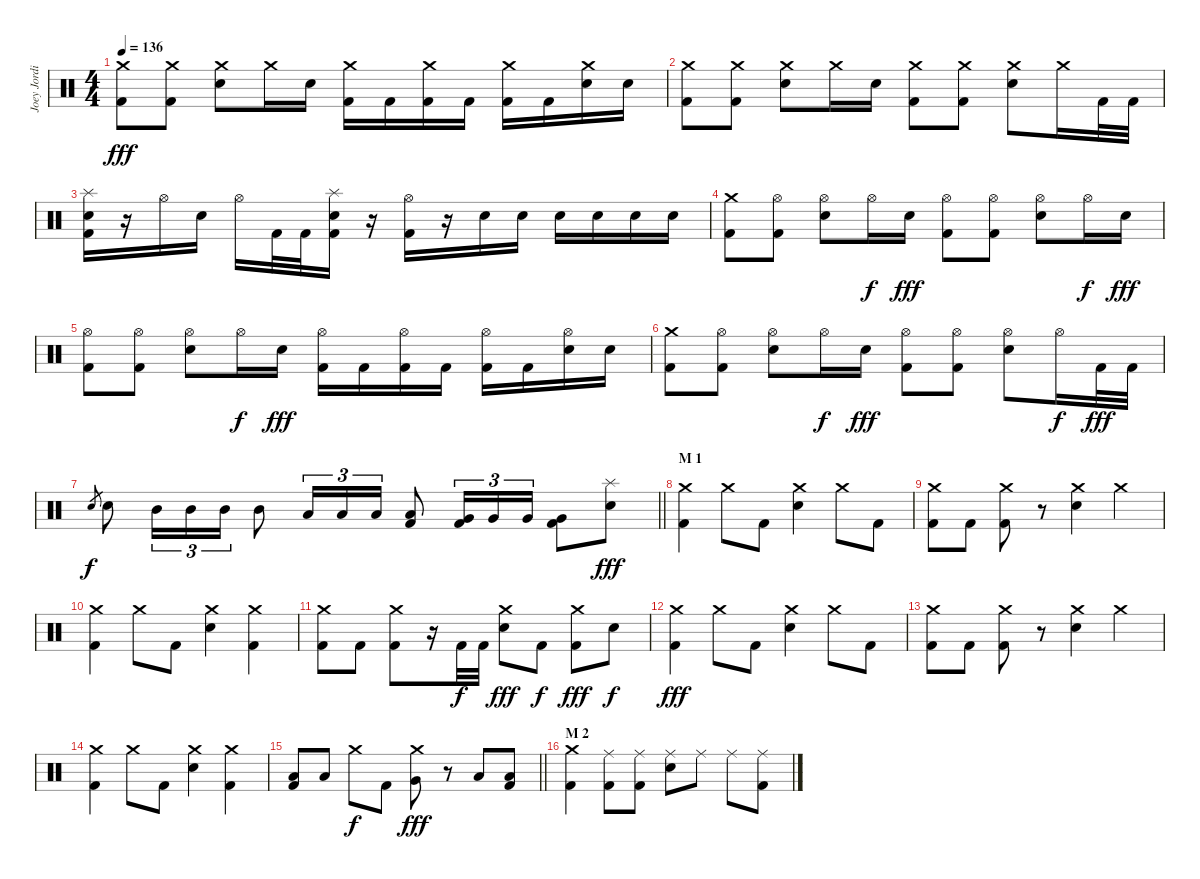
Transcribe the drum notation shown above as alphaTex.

\track ("Joey Jordison" "Joey Jordi") {instrument percussion}
\staff {score}
\articulation defaults
\ts (4 4)
\tempo 136
\clef neutral
\ks c
("Crash medium (hit)" "Kick (hit) 2").8{dy fff} ("Crash medium (hit)" "Kick (hit) 2").8 ("Crash medium (hit)" "Electric Snare (hit)").8 "Crash medium (hit)".16 "Electric Snare (hit)".16 ("Crash medium (hit)" "Kick (hit) 2").16 "Kick (hit) 2".16 ("Crash medium (hit)" "Kick (hit) 2").16 "Kick (hit) 2".16 ("Crash medium (hit)" "Kick (hit) 2").16 "Kick (hit) 2".16 ("Crash medium (hit)" "Electric Snare (hit)").16 "Electric Snare (hit)".16 |
("Crash medium (hit)" "Kick (hit) 2").8 ("Crash medium (hit)" "Kick (hit) 2").8 ("Crash medium (hit)" "Electric Snare (hit)").8 "Crash medium (hit)".16 "Electric Snare (hit)".16 ("Crash medium (hit)" "Kick (hit) 2").8 ("Crash medium (hit)" "Kick (hit) 2").8 ("Crash medium (hit)" "Electric Snare (hit)").8 "Crash medium (hit)".16 "Kick (hit) 2".32 "Kick (hit) 2".32 |
("Splash (hit)" "Electric Snare (hit)" "Kick (hit) 2").16 r.16 "Hi-Hat (open)".16 "Electric Snare (hit)".16 "Hi-Hat (open)".16 "Kick (hit) 2".32 "Kick (hit) 2".32 ("Splash (hit)" "Electric Snare (hit)" "Kick (hit) 2").16 r.16 ("Hi-Hat (open)" "Kick (hit) 2").16 r.16 "Electric Snare (hit)".16 "Electric Snare (hit)".16 "Electric Snare (hit)".16 "Electric Snare (hit)".16 "Electric Snare (hit)".16 "Electric Snare (hit)".16 |
("Crash medium (hit)" "Kick (hit) 2").8 ("Hi-Hat (open)" "Kick (hit) 2").8 ("Hi-Hat (open)" "Electric Snare (hit)").8 "Hi-Hat (open)".16{dy f} "Electric Snare (hit)".16{dy fff} ("Hi-Hat (open)" "Kick (hit) 2").8 ("Hi-Hat (open)" "Kick (hit) 2").8 ("Hi-Hat (open)" "Electric Snare (hit)").8 "Hi-Hat (open)".16{dy f} "Electric Snare (hit)".16{dy fff} |
("Hi-Hat (open)" "Kick (hit) 2").8 ("Hi-Hat (open)" "Kick (hit) 2").8 ("Hi-Hat (open)" "Electric Snare (hit)").8 "Hi-Hat (open)".16{dy f} "Electric Snare (hit)".16{dy fff} ("Hi-Hat (open)" "Kick (hit) 2").16 "Kick (hit) 2".16 ("Hi-Hat (open)" "Kick (hit) 2").16 "Kick (hit) 2".16 ("Hi-Hat (open)" "Kick (hit) 2").16 "Kick (hit) 2".16 ("Hi-Hat (open)" "Electric Snare (hit)").16 "Electric Snare (hit)".16 |
("Crash medium (hit)" "Kick (hit) 2").8 ("Hi-Hat (open)" "Kick (hit) 2").8 ("Hi-Hat (open)" "Electric Snare (hit)").8 "Hi-Hat (open)".16{dy f} "Electric Snare (hit)".16{dy fff} ("Hi-Hat (open)" "Kick (hit) 2").8 ("Hi-Hat (open)" "Kick (hit) 2").8 ("Hi-Hat (open)" "Electric Snare (hit)").8 "Hi-Hat (open)".16{dy f} "Kick (hit) 2".32{dy fff} "Kick (hit) 2".32 |
\barLineRight lightlight "Electric Snare (hit)".8{gr dy f} "Electric Snare (hit)".8 "Mid Tom (hit)".16{tu (3 2)} "Mid Tom (hit)".16{tu (3 2)} "Mid Tom (hit)".16{tu (3 2)} "Mid Tom (hit)".8 "Low Tom (hit)".16{tu (3 2)} "Low Tom (hit)".16{tu (3 2)} "Low Tom (hit)".16{tu (3 2)}
("Low Tom (hit)" "Kick (hit) 2").8 ("Very Low Tom (hit)" "Kick (hit) 2").16{tu (3 2)} "Very Low Tom (hit)".16{tu (3 2)} "Very Low Tom (hit)".16{tu (3 2)} ("Very Low Tom (hit)" "Kick (hit) 2").8 ("Splash (hit)" "Electric Snare (hit)").8{dy fff} |
\section ("" "M 1")
("Crash medium (hit)" "Kick (hit) 2").4 "Crash medium (hit)".8 "Kick (hit) 2".8 ("Crash medium (hit)" "Electric Snare (hit)").4 "Crash medium (hit)".8 "Kick (hit) 2".8 |
("Crash medium (hit)" "Kick (hit) 2").8 "Kick (hit) 2".8 ("Crash medium (hit)" "Kick (hit) 2").8 r.8 ("Crash medium (hit)" "Electric Snare (hit)").4 "Crash medium (hit)".4 |
("Crash medium (hit)" "Kick (hit) 2").4 "Crash medium (hit)".8 "Kick (hit) 2".8 ("Crash medium (hit)" "Electric Snare (hit)").4 ("Crash medium (hit)" "Kick (hit) 2").4 |
("Crash medium (hit)" "Kick (hit) 2").8 "Kick (hit) 2".8 ("Crash medium (hit)" "Kick (hit) 2").8 r.16 "Kick (hit) 2".32{dy f} "Kick (hit) 2".32 ("Crash medium (hit)" "Electric Snare (hit)").8{dy fff} "Kick (hit) 2".8{dy f} ("Crash medium (hit)" "Kick (hit) 2").8{dy fff} "Electric Snare (hit)".8{dy f} |
("Crash medium (hit)" "Kick (hit) 2").4{dy fff} "Crash medium (hit)".8 "Kick (hit) 2".8 ("Crash medium (hit)" "Electric Snare (hit)").4 "Crash medium (hit)".8 "Kick (hit) 2".8 |
("Crash medium (hit)" "Kick (hit) 2").8 "Kick (hit) 2".8 ("Crash medium (hit)" "Kick (hit) 2").8 r.8 ("Crash medium (hit)" "Electric Snare (hit)").4 "Crash medium (hit)".4 |
("Crash medium (hit)" "Kick (hit) 2").4 "Crash medium (hit)".8 "Kick (hit) 2".8 ("Crash medium (hit)" "Electric Snare (hit)").4 ("Crash medium (hit)" "Kick (hit) 2").4 |
\barLineRight lightlight
("Low Tom (hit)" "Kick (hit) 2").8 "Low Tom (hit)".8 "Crash medium (hit)".8{dy f} "Kick (hit) 2".8 ("Crash medium (hit)" "Very Low Tom (hit)").8{dy fff} r.8 "Low Floor Tom (hit)".8 ("Low Floor Tom (hit)" "Kick (hit) 2").8 |
\section ("" "M 2")
("Crash medium (hit)" "Kick (hit) 2").4 ("Ride (middle)" "Kick (hit) 2").8 ("Ride (middle)" "Kick (hit) 2").8 ("Ride (middle)" "Electric Snare (hit)").8 "Ride (middle)".8 "Ride (middle)".8 ("Ride (middle)" "Kick (hit) 2").8
